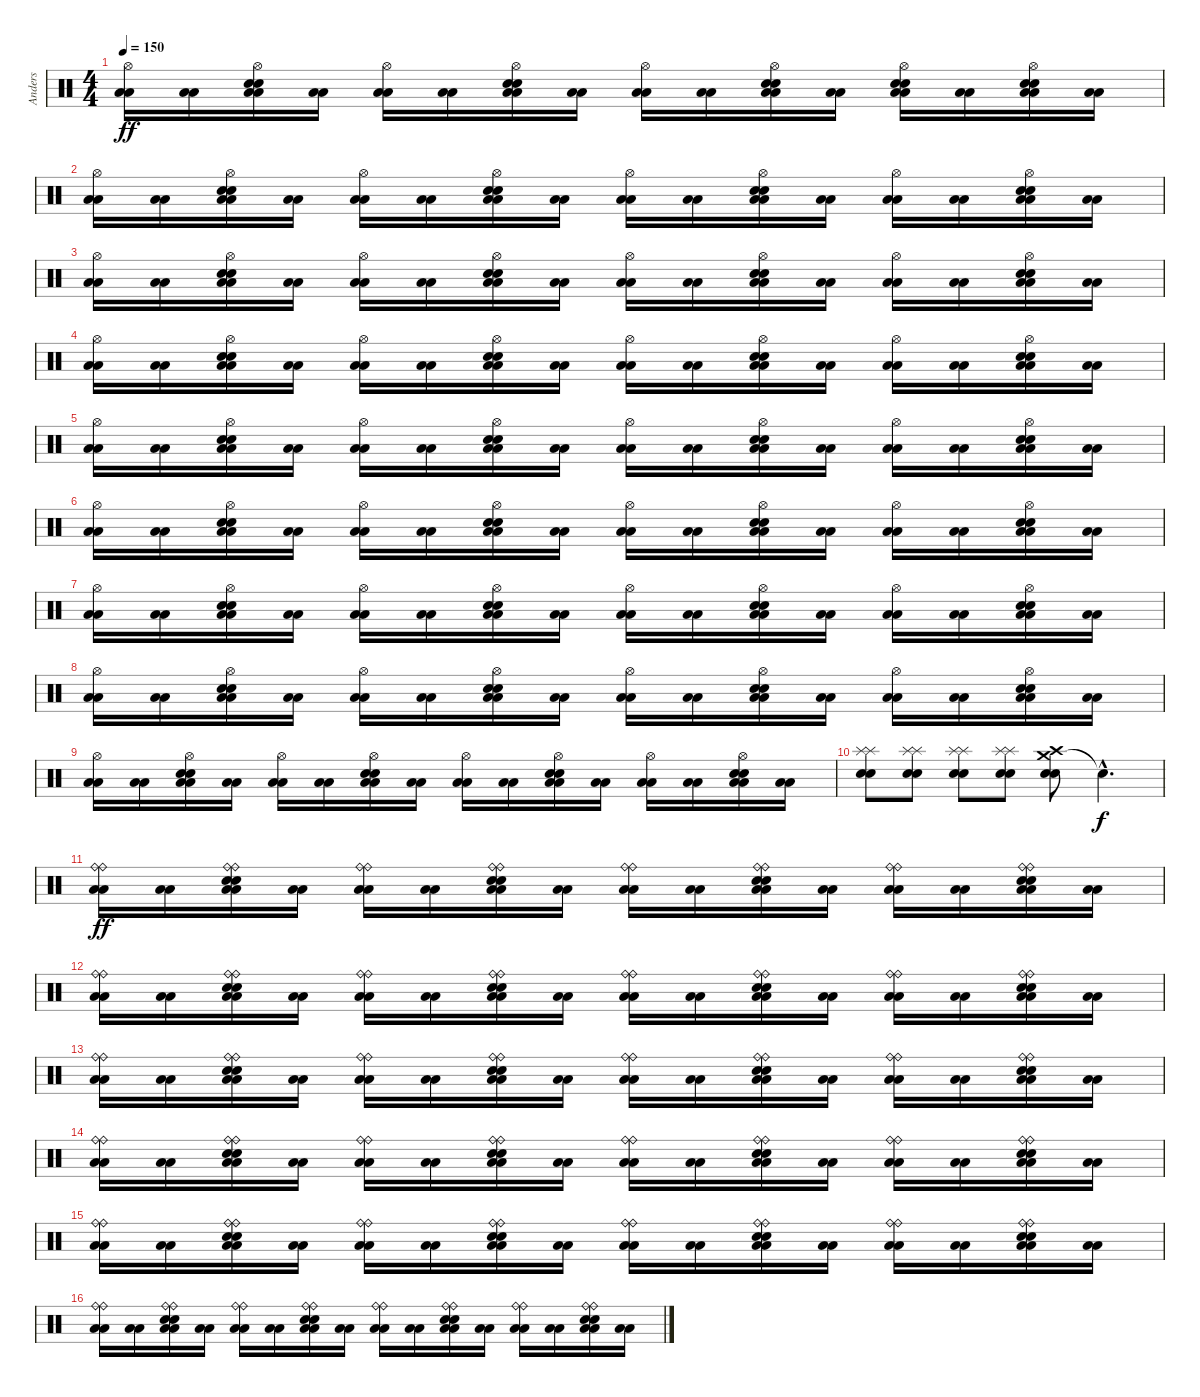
\track ("Anders" "Anders") {instrument percussion}
\staff {score}
\articulation defaults
\ts (4 4)
\tempo 150
\clef neutral
\ks c
("Hi-Hat (open)" "Low Floor Tom (hit)" "Low Floor Tom (hit)").16{dy ff} ("Low Floor Tom (hit)" "Low Floor Tom (hit)").16 ("Hi-Hat (open)" "Electric Snare (hit)" "Electric Snare (hit)" "Low Floor Tom (hit)" "Low Floor Tom (hit)").16 ("Low Floor Tom (hit)" "Low Floor Tom (hit)").16 ("Hi-Hat (open)" "Low Floor Tom (hit)" "Low Floor Tom (hit)").16 ("Low Floor Tom (hit)" "Low Floor Tom (hit)").16 ("Hi-Hat (open)" "Electric Snare (hit)" "Electric Snare (hit)" "Low Floor Tom (hit)" "Low Floor Tom (hit)").16 ("Low Floor Tom (hit)" "Low Floor Tom (hit)").16 ("Hi-Hat (open)" "Low Floor Tom (hit)" "Low Floor Tom (hit)").16 ("Low Floor Tom (hit)" "Low Floor Tom (hit)").16 ("Hi-Hat (open)" "Electric Snare (hit)" "Electric Snare (hit)" "Low Floor Tom (hit)" "Low Floor Tom (hit)").16 ("Low Floor Tom (hit)" "Low Floor Tom (hit)").16 ("Hi-Hat (open)" "Electric Snare (hit)" "Electric Snare (hit)" "Low Floor Tom (hit)" "Low Floor Tom (hit)").16 ("Low Floor Tom (hit)" "Low Floor Tom (hit)").16 ("Hi-Hat (open)" "Electric Snare (hit)" "Electric Snare (hit)" "Low Floor Tom (hit)" "Low Floor Tom (hit)").16 ("Low Floor Tom (hit)" "Low Floor Tom (hit)").16 |
("Hi-Hat (open)" "Low Floor Tom (hit)" "Low Floor Tom (hit)").16 ("Low Floor Tom (hit)" "Low Floor Tom (hit)").16 ("Hi-Hat (open)" "Electric Snare (hit)" "Electric Snare (hit)" "Low Floor Tom (hit)" "Low Floor Tom (hit)").16 ("Low Floor Tom (hit)" "Low Floor Tom (hit)").16 ("Hi-Hat (open)" "Low Floor Tom (hit)" "Low Floor Tom (hit)").16 ("Low Floor Tom (hit)" "Low Floor Tom (hit)").16 ("Hi-Hat (open)" "Electric Snare (hit)" "Electric Snare (hit)" "Low Floor Tom (hit)" "Low Floor Tom (hit)").16 ("Low Floor Tom (hit)" "Low Floor Tom (hit)").16 ("Hi-Hat (open)" "Low Floor Tom (hit)" "Low Floor Tom (hit)").16 ("Low Floor Tom (hit)" "Low Floor Tom (hit)").16 ("Hi-Hat (open)" "Electric Snare (hit)" "Electric Snare (hit)" "Low Floor Tom (hit)" "Low Floor Tom (hit)").16 ("Low Floor Tom (hit)" "Low Floor Tom (hit)").16 ("Hi-Hat (open)" "Low Floor Tom (hit)" "Low Floor Tom (hit)").16 ("Low Floor Tom (hit)" "Low Floor Tom (hit)").16 ("Hi-Hat (open)" "Electric Snare (hit)" "Electric Snare (hit)" "Low Floor Tom (hit)" "Low Floor Tom (hit)").16 ("Low Floor Tom (hit)" "Low Floor Tom (hit)").16 |
("Hi-Hat (open)" "Low Floor Tom (hit)" "Low Floor Tom (hit)").16 ("Low Floor Tom (hit)" "Low Floor Tom (hit)").16 ("Hi-Hat (open)" "Electric Snare (hit)" "Electric Snare (hit)" "Low Floor Tom (hit)" "Low Floor Tom (hit)").16 ("Low Floor Tom (hit)" "Low Floor Tom (hit)").16 ("Hi-Hat (open)" "Low Floor Tom (hit)" "Low Floor Tom (hit)").16 ("Low Floor Tom (hit)" "Low Floor Tom (hit)").16 ("Hi-Hat (open)" "Electric Snare (hit)" "Electric Snare (hit)" "Low Floor Tom (hit)" "Low Floor Tom (hit)").16 ("Low Floor Tom (hit)" "Low Floor Tom (hit)").16 ("Hi-Hat (open)" "Low Floor Tom (hit)" "Low Floor Tom (hit)").16 ("Low Floor Tom (hit)" "Low Floor Tom (hit)").16 ("Hi-Hat (open)" "Electric Snare (hit)" "Electric Snare (hit)" "Low Floor Tom (hit)" "Low Floor Tom (hit)").16 ("Low Floor Tom (hit)" "Low Floor Tom (hit)").16 ("Hi-Hat (open)" "Low Floor Tom (hit)" "Low Floor Tom (hit)").16 ("Low Floor Tom (hit)" "Low Floor Tom (hit)").16 ("Hi-Hat (open)" "Electric Snare (hit)" "Electric Snare (hit)" "Low Floor Tom (hit)" "Low Floor Tom (hit)").16 ("Low Floor Tom (hit)" "Low Floor Tom (hit)").16 |
("Hi-Hat (open)" "Low Floor Tom (hit)" "Low Floor Tom (hit)").16 ("Low Floor Tom (hit)" "Low Floor Tom (hit)").16 ("Hi-Hat (open)" "Electric Snare (hit)" "Electric Snare (hit)" "Low Floor Tom (hit)" "Low Floor Tom (hit)").16 ("Low Floor Tom (hit)" "Low Floor Tom (hit)").16 ("Hi-Hat (open)" "Low Floor Tom (hit)" "Low Floor Tom (hit)").16 ("Low Floor Tom (hit)" "Low Floor Tom (hit)").16 ("Hi-Hat (open)" "Electric Snare (hit)" "Electric Snare (hit)" "Low Floor Tom (hit)" "Low Floor Tom (hit)").16 ("Low Floor Tom (hit)" "Low Floor Tom (hit)").16 ("Hi-Hat (open)" "Low Floor Tom (hit)" "Low Floor Tom (hit)").16 ("Low Floor Tom (hit)" "Low Floor Tom (hit)").16 ("Hi-Hat (open)" "Electric Snare (hit)" "Electric Snare (hit)" "Low Floor Tom (hit)" "Low Floor Tom (hit)").16 ("Low Floor Tom (hit)" "Low Floor Tom (hit)").16 ("Hi-Hat (open)" "Low Floor Tom (hit)" "Low Floor Tom (hit)").16 ("Low Floor Tom (hit)" "Low Floor Tom (hit)").16 ("Hi-Hat (open)" "Electric Snare (hit)" "Electric Snare (hit)" "Low Floor Tom (hit)" "Low Floor Tom (hit)").16 ("Low Floor Tom (hit)" "Low Floor Tom (hit)").16 |
("Hi-Hat (open)" "Low Floor Tom (hit)" "Low Floor Tom (hit)").16 ("Low Floor Tom (hit)" "Low Floor Tom (hit)").16 ("Hi-Hat (open)" "Electric Snare (hit)" "Electric Snare (hit)" "Low Floor Tom (hit)" "Low Floor Tom (hit)").16 ("Low Floor Tom (hit)" "Low Floor Tom (hit)").16 ("Hi-Hat (open)" "Low Floor Tom (hit)" "Low Floor Tom (hit)").16 ("Low Floor Tom (hit)" "Low Floor Tom (hit)").16 ("Hi-Hat (open)" "Electric Snare (hit)" "Electric Snare (hit)" "Low Floor Tom (hit)" "Low Floor Tom (hit)").16 ("Low Floor Tom (hit)" "Low Floor Tom (hit)").16 ("Hi-Hat (open)" "Low Floor Tom (hit)" "Low Floor Tom (hit)").16 ("Low Floor Tom (hit)" "Low Floor Tom (hit)").16 ("Hi-Hat (open)" "Electric Snare (hit)" "Electric Snare (hit)" "Low Floor Tom (hit)" "Low Floor Tom (hit)").16 ("Low Floor Tom (hit)" "Low Floor Tom (hit)").16 ("Hi-Hat (open)" "Low Floor Tom (hit)" "Low Floor Tom (hit)").16 ("Low Floor Tom (hit)" "Low Floor Tom (hit)").16 ("Hi-Hat (open)" "Electric Snare (hit)" "Electric Snare (hit)" "Low Floor Tom (hit)" "Low Floor Tom (hit)").16 ("Low Floor Tom (hit)" "Low Floor Tom (hit)").16 |
("Hi-Hat (open)" "Low Floor Tom (hit)" "Low Floor Tom (hit)").16 ("Low Floor Tom (hit)" "Low Floor Tom (hit)").16 ("Hi-Hat (open)" "Electric Snare (hit)" "Electric Snare (hit)" "Low Floor Tom (hit)" "Low Floor Tom (hit)").16 ("Low Floor Tom (hit)" "Low Floor Tom (hit)").16 ("Hi-Hat (open)" "Low Floor Tom (hit)" "Low Floor Tom (hit)").16 ("Low Floor Tom (hit)" "Low Floor Tom (hit)").16 ("Hi-Hat (open)" "Electric Snare (hit)" "Electric Snare (hit)" "Low Floor Tom (hit)" "Low Floor Tom (hit)").16 ("Low Floor Tom (hit)" "Low Floor Tom (hit)").16 ("Hi-Hat (open)" "Low Floor Tom (hit)" "Low Floor Tom (hit)").16 ("Low Floor Tom (hit)" "Low Floor Tom (hit)").16 ("Hi-Hat (open)" "Electric Snare (hit)" "Electric Snare (hit)" "Low Floor Tom (hit)" "Low Floor Tom (hit)").16 ("Low Floor Tom (hit)" "Low Floor Tom (hit)").16 ("Hi-Hat (open)" "Low Floor Tom (hit)" "Low Floor Tom (hit)").16 ("Low Floor Tom (hit)" "Low Floor Tom (hit)").16 ("Hi-Hat (open)" "Electric Snare (hit)" "Electric Snare (hit)" "Low Floor Tom (hit)" "Low Floor Tom (hit)").16 ("Low Floor Tom (hit)" "Low Floor Tom (hit)").16 |
("Hi-Hat (open)" "Low Floor Tom (hit)" "Low Floor Tom (hit)").16 ("Low Floor Tom (hit)" "Low Floor Tom (hit)").16 ("Hi-Hat (open)" "Electric Snare (hit)" "Electric Snare (hit)" "Low Floor Tom (hit)" "Low Floor Tom (hit)").16 ("Low Floor Tom (hit)" "Low Floor Tom (hit)").16 ("Hi-Hat (open)" "Low Floor Tom (hit)" "Low Floor Tom (hit)").16 ("Low Floor Tom (hit)" "Low Floor Tom (hit)").16 ("Hi-Hat (open)" "Electric Snare (hit)" "Electric Snare (hit)" "Low Floor Tom (hit)" "Low Floor Tom (hit)").16 ("Low Floor Tom (hit)" "Low Floor Tom (hit)").16 ("Hi-Hat (open)" "Low Floor Tom (hit)" "Low Floor Tom (hit)").16 ("Low Floor Tom (hit)" "Low Floor Tom (hit)").16 ("Hi-Hat (open)" "Electric Snare (hit)" "Electric Snare (hit)" "Low Floor Tom (hit)" "Low Floor Tom (hit)").16 ("Low Floor Tom (hit)" "Low Floor Tom (hit)").16 ("Hi-Hat (open)" "Low Floor Tom (hit)" "Low Floor Tom (hit)").16 ("Low Floor Tom (hit)" "Low Floor Tom (hit)").16 ("Hi-Hat (open)" "Electric Snare (hit)" "Electric Snare (hit)" "Low Floor Tom (hit)" "Low Floor Tom (hit)").16 ("Low Floor Tom (hit)" "Low Floor Tom (hit)").16 |
("Hi-Hat (open)" "Low Floor Tom (hit)" "Low Floor Tom (hit)").16 ("Low Floor Tom (hit)" "Low Floor Tom (hit)").16 ("Hi-Hat (open)" "Electric Snare (hit)" "Electric Snare (hit)" "Low Floor Tom (hit)" "Low Floor Tom (hit)").16 ("Low Floor Tom (hit)" "Low Floor Tom (hit)").16 ("Hi-Hat (open)" "Low Floor Tom (hit)" "Low Floor Tom (hit)").16 ("Low Floor Tom (hit)" "Low Floor Tom (hit)").16 ("Hi-Hat (open)" "Electric Snare (hit)" "Electric Snare (hit)" "Low Floor Tom (hit)" "Low Floor Tom (hit)").16 ("Low Floor Tom (hit)" "Low Floor Tom (hit)").16 ("Hi-Hat (open)" "Low Floor Tom (hit)" "Low Floor Tom (hit)").16 ("Low Floor Tom (hit)" "Low Floor Tom (hit)").16 ("Hi-Hat (open)" "Electric Snare (hit)" "Electric Snare (hit)" "Low Floor Tom (hit)" "Low Floor Tom (hit)").16 ("Low Floor Tom (hit)" "Low Floor Tom (hit)").16 ("Hi-Hat (open)" "Low Floor Tom (hit)" "Low Floor Tom (hit)").16 ("Low Floor Tom (hit)" "Low Floor Tom (hit)").16 ("Hi-Hat (open)" "Electric Snare (hit)" "Electric Snare (hit)" "Low Floor Tom (hit)" "Low Floor Tom (hit)").16 ("Low Floor Tom (hit)" "Low Floor Tom (hit)").16 |
("Hi-Hat (open)" "Low Floor Tom (hit)" "Low Floor Tom (hit)").16 ("Low Floor Tom (hit)" "Low Floor Tom (hit)").16 ("Hi-Hat (open)" "Electric Snare (hit)" "Electric Snare (hit)" "Low Floor Tom (hit)" "Low Floor Tom (hit)").16 ("Low Floor Tom (hit)" "Low Floor Tom (hit)").16 ("Hi-Hat (open)" "Low Floor Tom (hit)" "Low Floor Tom (hit)").16 ("Low Floor Tom (hit)" "Low Floor Tom (hit)").16 ("Hi-Hat (open)" "Electric Snare (hit)" "Electric Snare (hit)" "Low Floor Tom (hit)" "Low Floor Tom (hit)").16 ("Low Floor Tom (hit)" "Low Floor Tom (hit)").16 ("Hi-Hat (open)" "Low Floor Tom (hit)" "Low Floor Tom (hit)").16 ("Low Floor Tom (hit)" "Low Floor Tom (hit)").16 ("Hi-Hat (open)" "Electric Snare (hit)" "Electric Snare (hit)" "Low Floor Tom (hit)" "Low Floor Tom (hit)").16 ("Low Floor Tom (hit)" "Low Floor Tom (hit)").16 ("Hi-Hat (open)" "Low Floor Tom (hit)" "Low Floor Tom (hit)").16 ("Low Floor Tom (hit)" "Low Floor Tom (hit)").16 ("Hi-Hat (open)" "Electric Snare (hit)" "Electric Snare (hit)" "Low Floor Tom (hit)" "Low Floor Tom (hit)").16 ("Low Floor Tom (hit)" "Low Floor Tom (hit)").16 |
("Splash (hit)" "Splash (hit)" "Electric Snare (hit)" "Electric Snare (hit)").8 ("Splash (hit)" "Splash (hit)" "Electric Snare (hit)" "Electric Snare (hit)").8 ("Splash (hit)" "Splash (hit)" "Electric Snare (hit)" "Electric Snare (hit)").8 ("Splash (hit)" "Splash (hit)" "Electric Snare (hit)" "Electric Snare (hit)").8 ("Crash medium (hit)" "Crash high (hit)" "Electric Snare (hit)" "Electric Snare (hit)").8 "Snare (hit)"{hac t}.4{d dy f} |
("Ride (bell)" "Ride (bell)" "Low Floor Tom (hit)" "Low Floor Tom (hit)").16{dy ff} ("Low Floor Tom (hit)" "Low Floor Tom (hit)").16 ("Ride (bell)" "Ride (bell)" "Electric Snare (hit)" "Electric Snare (hit)" "Low Floor Tom (hit)" "Low Floor Tom (hit)").16 ("Low Floor Tom (hit)" "Low Floor Tom (hit)").16 ("Ride (bell)" "Ride (bell)" "Low Floor Tom (hit)" "Low Floor Tom (hit)").16 ("Low Floor Tom (hit)" "Low Floor Tom (hit)").16 ("Ride (bell)" "Ride (bell)" "Electric Snare (hit)" "Electric Snare (hit)" "Low Floor Tom (hit)" "Low Floor Tom (hit)").16 ("Low Floor Tom (hit)" "Low Floor Tom (hit)").16 ("Ride (bell)" "Ride (bell)" "Low Floor Tom (hit)" "Low Floor Tom (hit)").16 ("Low Floor Tom (hit)" "Low Floor Tom (hit)").16 ("Ride (bell)" "Ride (bell)" "Electric Snare (hit)" "Electric Snare (hit)" "Low Floor Tom (hit)" "Low Floor Tom (hit)").16 ("Low Floor Tom (hit)" "Low Floor Tom (hit)").16 ("Ride (bell)" "Ride (bell)" "Low Floor Tom (hit)" "Low Floor Tom (hit)").16 ("Low Floor Tom (hit)" "Low Floor Tom (hit)").16 ("Ride (bell)" "Ride (bell)" "Electric Snare (hit)" "Electric Snare (hit)" "Low Floor Tom (hit)" "Low Floor Tom (hit)").16 ("Low Floor Tom (hit)" "Low Floor Tom (hit)").16 |
("Ride (bell)" "Ride (bell)" "Low Floor Tom (hit)" "Low Floor Tom (hit)").16 ("Low Floor Tom (hit)" "Low Floor Tom (hit)").16 ("Ride (bell)" "Ride (bell)" "Electric Snare (hit)" "Electric Snare (hit)" "Low Floor Tom (hit)" "Low Floor Tom (hit)").16 ("Low Floor Tom (hit)" "Low Floor Tom (hit)").16 ("Ride (bell)" "Ride (bell)" "Low Floor Tom (hit)" "Low Floor Tom (hit)").16 ("Low Floor Tom (hit)" "Low Floor Tom (hit)").16 ("Ride (bell)" "Ride (bell)" "Electric Snare (hit)" "Electric Snare (hit)" "Low Floor Tom (hit)" "Low Floor Tom (hit)").16 ("Low Floor Tom (hit)" "Low Floor Tom (hit)").16 ("Ride (bell)" "Ride (bell)" "Low Floor Tom (hit)" "Low Floor Tom (hit)").16 ("Low Floor Tom (hit)" "Low Floor Tom (hit)").16 ("Ride (bell)" "Ride (bell)" "Electric Snare (hit)" "Electric Snare (hit)" "Low Floor Tom (hit)" "Low Floor Tom (hit)").16 ("Low Floor Tom (hit)" "Low Floor Tom (hit)").16 ("Ride (bell)" "Ride (bell)" "Low Floor Tom (hit)" "Low Floor Tom (hit)").16 ("Low Floor Tom (hit)" "Low Floor Tom (hit)").16 ("Ride (bell)" "Ride (bell)" "Electric Snare (hit)" "Electric Snare (hit)" "Low Floor Tom (hit)" "Low Floor Tom (hit)").16 ("Low Floor Tom (hit)" "Low Floor Tom (hit)").16 |
("Ride (bell)" "Ride (bell)" "Low Floor Tom (hit)" "Low Floor Tom (hit)").16 ("Low Floor Tom (hit)" "Low Floor Tom (hit)").16 ("Ride (bell)" "Ride (bell)" "Electric Snare (hit)" "Electric Snare (hit)" "Low Floor Tom (hit)" "Low Floor Tom (hit)").16 ("Low Floor Tom (hit)" "Low Floor Tom (hit)").16 ("Ride (bell)" "Ride (bell)" "Low Floor Tom (hit)" "Low Floor Tom (hit)").16 ("Low Floor Tom (hit)" "Low Floor Tom (hit)").16 ("Ride (bell)" "Ride (bell)" "Electric Snare (hit)" "Electric Snare (hit)" "Low Floor Tom (hit)" "Low Floor Tom (hit)").16 ("Low Floor Tom (hit)" "Low Floor Tom (hit)").16 ("Ride (bell)" "Ride (bell)" "Low Floor Tom (hit)" "Low Floor Tom (hit)").16 ("Low Floor Tom (hit)" "Low Floor Tom (hit)").16 ("Ride (bell)" "Ride (bell)" "Electric Snare (hit)" "Electric Snare (hit)" "Low Floor Tom (hit)" "Low Floor Tom (hit)").16 ("Low Floor Tom (hit)" "Low Floor Tom (hit)").16 ("Ride (bell)" "Ride (bell)" "Low Floor Tom (hit)" "Low Floor Tom (hit)").16 ("Low Floor Tom (hit)" "Low Floor Tom (hit)").16 ("Ride (bell)" "Ride (bell)" "Electric Snare (hit)" "Electric Snare (hit)" "Low Floor Tom (hit)" "Low Floor Tom (hit)").16 ("Low Floor Tom (hit)" "Low Floor Tom (hit)").16 |
("Ride (bell)" "Ride (bell)" "Low Floor Tom (hit)" "Low Floor Tom (hit)").16 ("Low Floor Tom (hit)" "Low Floor Tom (hit)").16 ("Ride (bell)" "Ride (bell)" "Electric Snare (hit)" "Electric Snare (hit)" "Low Floor Tom (hit)" "Low Floor Tom (hit)").16 ("Low Floor Tom (hit)" "Low Floor Tom (hit)").16 ("Ride (bell)" "Ride (bell)" "Low Floor Tom (hit)" "Low Floor Tom (hit)").16 ("Low Floor Tom (hit)" "Low Floor Tom (hit)").16 ("Ride (bell)" "Ride (bell)" "Electric Snare (hit)" "Electric Snare (hit)" "Low Floor Tom (hit)" "Low Floor Tom (hit)").16 ("Low Floor Tom (hit)" "Low Floor Tom (hit)").16 ("Ride (bell)" "Ride (bell)" "Low Floor Tom (hit)" "Low Floor Tom (hit)").16 ("Low Floor Tom (hit)" "Low Floor Tom (hit)").16 ("Ride (bell)" "Ride (bell)" "Electric Snare (hit)" "Electric Snare (hit)" "Low Floor Tom (hit)" "Low Floor Tom (hit)").16 ("Low Floor Tom (hit)" "Low Floor Tom (hit)").16 ("Ride (bell)" "Ride (bell)" "Low Floor Tom (hit)" "Low Floor Tom (hit)").16 ("Low Floor Tom (hit)" "Low Floor Tom (hit)").16 ("Ride (bell)" "Ride (bell)" "Electric Snare (hit)" "Electric Snare (hit)" "Low Floor Tom (hit)" "Low Floor Tom (hit)").16 ("Low Floor Tom (hit)" "Low Floor Tom (hit)").16 |
("Ride (bell)" "Ride (bell)" "Low Floor Tom (hit)" "Low Floor Tom (hit)").16 ("Low Floor Tom (hit)" "Low Floor Tom (hit)").16 ("Ride (bell)" "Ride (bell)" "Electric Snare (hit)" "Electric Snare (hit)" "Low Floor Tom (hit)" "Low Floor Tom (hit)").16 ("Low Floor Tom (hit)" "Low Floor Tom (hit)").16 ("Ride (bell)" "Ride (bell)" "Low Floor Tom (hit)" "Low Floor Tom (hit)").16 ("Low Floor Tom (hit)" "Low Floor Tom (hit)").16 ("Ride (bell)" "Ride (bell)" "Electric Snare (hit)" "Electric Snare (hit)" "Low Floor Tom (hit)" "Low Floor Tom (hit)").16 ("Low Floor Tom (hit)" "Low Floor Tom (hit)").16 ("Ride (bell)" "Ride (bell)" "Low Floor Tom (hit)" "Low Floor Tom (hit)").16 ("Low Floor Tom (hit)" "Low Floor Tom (hit)").16 ("Ride (bell)" "Ride (bell)" "Electric Snare (hit)" "Electric Snare (hit)" "Low Floor Tom (hit)" "Low Floor Tom (hit)").16 ("Low Floor Tom (hit)" "Low Floor Tom (hit)").16 ("Ride (bell)" "Ride (bell)" "Low Floor Tom (hit)" "Low Floor Tom (hit)").16 ("Low Floor Tom (hit)" "Low Floor Tom (hit)").16 ("Ride (bell)" "Ride (bell)" "Electric Snare (hit)" "Electric Snare (hit)" "Low Floor Tom (hit)" "Low Floor Tom (hit)").16 ("Low Floor Tom (hit)" "Low Floor Tom (hit)").16 |
("Ride (bell)" "Ride (bell)" "Low Floor Tom (hit)" "Low Floor Tom (hit)").16 ("Low Floor Tom (hit)" "Low Floor Tom (hit)").16 ("Ride (bell)" "Ride (bell)" "Electric Snare (hit)" "Electric Snare (hit)" "Low Floor Tom (hit)" "Low Floor Tom (hit)").16 ("Low Floor Tom (hit)" "Low Floor Tom (hit)").16 ("Ride (bell)" "Ride (bell)" "Low Floor Tom (hit)" "Low Floor Tom (hit)").16 ("Low Floor Tom (hit)" "Low Floor Tom (hit)").16 ("Ride (bell)" "Ride (bell)" "Electric Snare (hit)" "Electric Snare (hit)" "Low Floor Tom (hit)" "Low Floor Tom (hit)").16 ("Low Floor Tom (hit)" "Low Floor Tom (hit)").16 ("Ride (bell)" "Ride (bell)" "Low Floor Tom (hit)" "Low Floor Tom (hit)").16 ("Low Floor Tom (hit)" "Low Floor Tom (hit)").16 ("Ride (bell)" "Ride (bell)" "Electric Snare (hit)" "Electric Snare (hit)" "Low Floor Tom (hit)" "Low Floor Tom (hit)").16 ("Low Floor Tom (hit)" "Low Floor Tom (hit)").16 ("Ride (bell)" "Ride (bell)" "Low Floor Tom (hit)" "Low Floor Tom (hit)").16 ("Low Floor Tom (hit)" "Low Floor Tom (hit)").16 ("Ride (bell)" "Ride (bell)" "Electric Snare (hit)" "Electric Snare (hit)" "Low Floor Tom (hit)" "Low Floor Tom (hit)").16 ("Low Floor Tom (hit)" "Low Floor Tom (hit)").16
